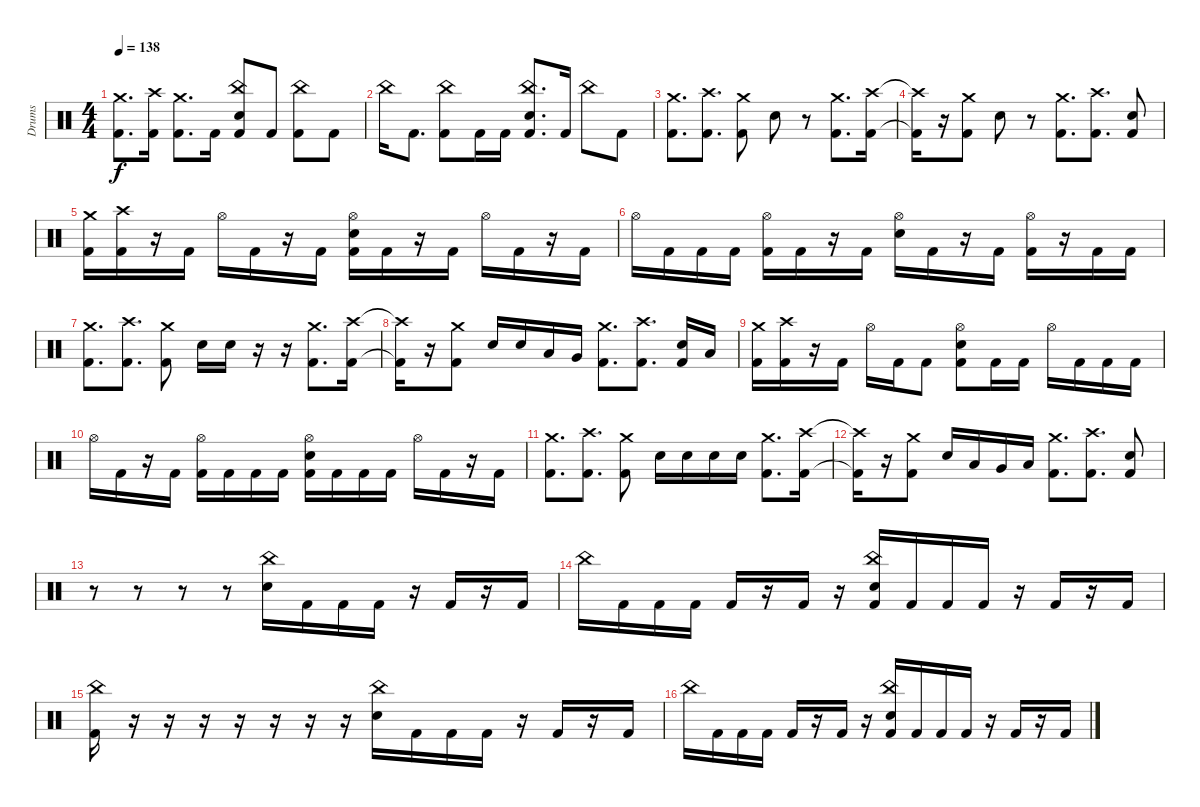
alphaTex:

\track ("Drums" "Drums") {instrument percussion}
\staff {score}
\articulation defaults
\ts (4 4)
\tempo 138
\clef neutral
\ks c
("Crash medium (hit)" "Kick (hit) 2").8{d dy f} ("Crash high (hit)" "Kick (hit) 2").16 ("Crash medium (hit)" "Kick (hit) 2").8{d} "Kick (hit) 2".16 ("China (hit)" "Electric Snare (hit)" "Kick (hit) 2").8 "Kick (hit) 2".8 ("China (hit)" "Kick (hit) 2").8 "Kick (hit) 2".8 |
"China (hit)".16 "Kick (hit) 2".8{d} ("China (hit)" "Kick (hit) 2").8 "Kick (hit) 2".16 "Kick (hit) 2".16 ("China (hit)" "Electric Snare (hit)" "Kick (hit) 2").8{d} "Kick (hit) 2".16 "China (hit)".8 "Kick (hit) 2".8 |
("Crash medium (hit)" "Kick (hit) 2").8{d} ("Crash high (hit)" "Kick (hit) 2").8{d} ("Crash medium (hit)" "Kick (hit) 2").8 "Electric Snare (hit)".8 r.8 ("Crash medium (hit)" "Kick (hit) 2").8{d} ("Crash high (hit)" "Kick (hit) 2").16 |
("Crash high (hit)"{t} "Kick (hit) 2"{t}).16 r.16 ("Crash medium (hit)" "Kick (hit) 2").8 "Electric Snare (hit)".8 r.8 ("Crash medium (hit)" "Kick (hit) 2").8{d} ("Crash high (hit)" "Kick (hit) 2").8{d} ("Electric Snare (hit)" "Kick (hit) 2").8 |
("Crash medium (hit)" "Kick (hit) 2").16 ("Crash high (hit)" "Kick (hit) 2").16 r.16 "Kick (hit) 2".16 "Hi-Hat (open)".16 "Kick (hit) 2".16 r.16 "Kick (hit) 2".16 ("Hi-Hat (open)" "Electric Snare (hit)" "Kick (hit) 2").16 "Kick (hit) 2".16 r.16 "Kick (hit) 2".16 "Hi-Hat (open)".16 "Kick (hit) 2".16 r.16 "Kick (hit) 2".16 |
"Hi-Hat (open)".16 "Kick (hit) 2".16 "Kick (hit) 2".16 "Kick (hit) 2".16 ("Hi-Hat (open)" "Kick (hit) 2").16 "Kick (hit) 2".16 r.16 "Kick (hit) 2".16 ("Hi-Hat (open)" "Electric Snare (hit)").16 "Kick (hit) 2".16 r.16 "Kick (hit) 2".16 ("Hi-Hat (open)" "Kick (hit) 2").16 r.16 "Kick (hit) 2".16 "Kick (hit) 2".16 |
("Crash medium (hit)" "Kick (hit) 2").8{d} ("Crash high (hit)" "Kick (hit) 2").8{d} ("Crash medium (hit)" "Kick (hit) 2").8 "Electric Snare (hit)".16 "Electric Snare (hit)".16 r.16 r.16 ("Crash medium (hit)" "Kick (hit) 2").8{d} ("Crash high (hit)" "Kick (hit) 2").16 |
("Crash high (hit)"{t} "Kick (hit) 2"{t}).16 r.16 ("Crash medium (hit)" "Kick (hit) 2").8 "Electric Snare (hit)".16 "Electric Snare (hit)".16 "Low Tom (hit)".16 "Very Low Tom (hit)".16 ("Crash medium (hit)" "Kick (hit) 2").8{d} ("Crash high (hit)" "Kick (hit) 2").8{d} ("Electric Snare (hit)" "Kick (hit) 2").16 "Low Floor Tom (hit)".16 |
("Crash medium (hit)" "Kick (hit) 2").16 ("Crash high (hit)" "Kick (hit) 2").16 r.16 "Kick (hit) 2".16 "Hi-Hat (open)".16 "Kick (hit) 2".16 "Kick (hit) 2".8 ("Hi-Hat (open)" "Electric Snare (hit)" "Kick (hit) 2").8 "Kick (hit) 2".16 "Kick (hit) 2".16 "Hi-Hat (open)".16 "Kick (hit) 2".16 "Kick (hit) 2".16 "Kick (hit) 2".16 |
"Hi-Hat (open)".16 "Kick (hit) 2".16 r.16 "Kick (hit) 2".16 ("Hi-Hat (open)" "Kick (hit) 2").16 "Kick (hit) 2".16 "Kick (hit) 2".16 "Kick (hit) 2".16 ("Hi-Hat (open)" "Electric Snare (hit)" "Kick (hit) 2").16 "Kick (hit) 2".16 "Kick (hit) 2".16 "Kick (hit) 2".16 "Hi-Hat (open)".16 "Kick (hit) 2".16 r.16 "Kick (hit) 2".16 |
("Crash medium (hit)" "Kick (hit) 2").8{d} ("Crash high (hit)" "Kick (hit) 2").8{d} ("Crash medium (hit)" "Kick (hit) 2").8 "Electric Snare (hit)".16 "Electric Snare (hit)".16 "Electric Snare (hit)".16 "Electric Snare (hit)".16 ("Crash medium (hit)" "Kick (hit) 2").8{d} ("Crash high (hit)" "Kick (hit) 2").16 |
("Crash high (hit)"{t} "Kick (hit) 2"{t}).16 r.16 ("Crash medium (hit)" "Kick (hit) 2").8 "Electric Snare (hit)".16 "Low Tom (hit)".16 "Very Low Tom (hit)".16 "Low Floor Tom (hit)".16 ("Crash medium (hit)" "Kick (hit) 2").8{d} ("Crash high (hit)" "Kick (hit) 2").8{d} ("Electric Snare (hit)" "Kick (hit) 2").8 |
r.8 r.8 r.8 r.8 ("China (hit)" "Electric Snare (hit)").16 "Kick (hit) 2".16 "Kick (hit) 2".16 "Kick (hit) 2".16 r.16 "Kick (hit) 2".16 r.16 "Kick (hit) 2".16 |
"China (hit)".16 "Kick (hit) 2".16 "Kick (hit) 2".16 "Kick (hit) 2".16 "Kick (hit) 2".16 r.16 "Kick (hit) 2".16 r.16 ("China (hit)" "Electric Snare (hit)" "Kick (hit) 2").16 "Kick (hit) 2".16 "Kick (hit) 2".16 "Kick (hit) 2".16 r.16 "Kick (hit) 2".16 r.16 "Kick (hit) 2".16 |
("China (hit)" "Kick (hit) 2").16 r.16 r.16 r.16 r.16 r.16 r.16 r.16 ("China (hit)" "Electric Snare (hit)").16 "Kick (hit) 2".16 "Kick (hit) 2".16 "Kick (hit) 2".16 r.16 "Kick (hit) 2".16 r.16 "Kick (hit) 2".16 |
"China (hit)".16 "Kick (hit) 2".16 "Kick (hit) 2".16 "Kick (hit) 2".16 "Kick (hit) 2".16 r.16 "Kick (hit) 2".16 r.16 ("China (hit)" "Electric Snare (hit)" "Kick (hit) 2").16 "Kick (hit) 2".16 "Kick (hit) 2".16 "Kick (hit) 2".16 r.16 "Kick (hit) 2".16 r.16 "Kick (hit) 2".16
